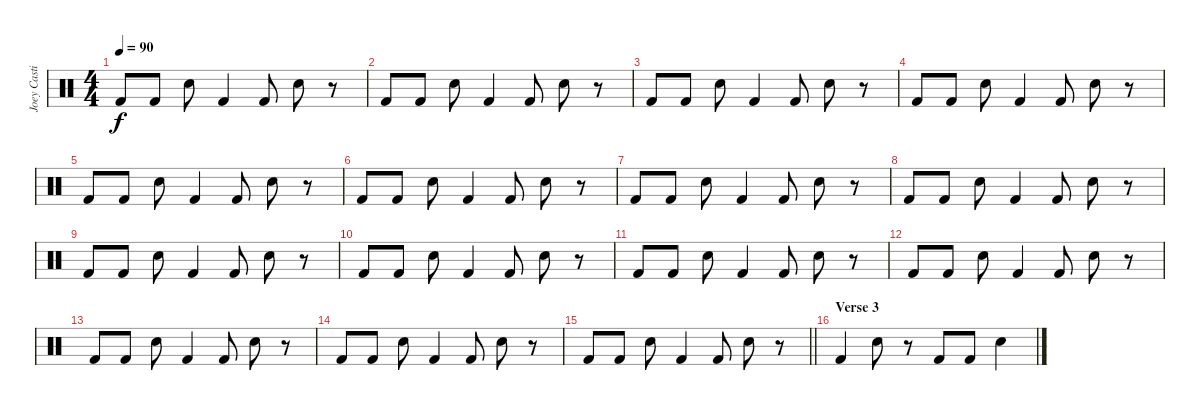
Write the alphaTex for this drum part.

\track ("Joey Castillo" "Joey Casti") {instrument percussion}
\staff {score}
\articulation defaults
\ts (4 4)
\tempo 90
\clef neutral
\ks c "Kick (hit) 2".8{dy f} "Kick (hit) 2".8 "Electric Snare (hit)".8 "Kick (hit) 2".4 "Kick (hit) 2".8 "Electric Snare (hit)".8
r.8 |
"Kick (hit) 2".8 "Kick (hit) 2".8 "Electric Snare (hit)".8 "Kick (hit) 2".4 "Kick (hit) 2".8 "Electric Snare (hit)".8 r.8 |
"Kick (hit) 2".8 "Kick (hit) 2".8 "Electric Snare (hit)".8 "Kick (hit) 2".4 "Kick (hit) 2".8 "Electric Snare (hit)".8 r.8 |
"Kick (hit) 2".8 "Kick (hit) 2".8 "Electric Snare (hit)".8 "Kick (hit) 2".4 "Kick (hit) 2".8 "Electric Snare (hit)".8 r.8 |
"Kick (hit) 2".8 "Kick (hit) 2".8 "Electric Snare (hit)".8 "Kick (hit) 2".4 "Kick (hit) 2".8 "Electric Snare (hit)".8 r.8 |
"Kick (hit) 2".8 "Kick (hit) 2".8 "Electric Snare (hit)".8 "Kick (hit) 2".4 "Kick (hit) 2".8 "Electric Snare (hit)".8 r.8 |
"Kick (hit) 2".8 "Kick (hit) 2".8 "Electric Snare (hit)".8 "Kick (hit) 2".4 "Kick (hit) 2".8 "Electric Snare (hit)".8 r.8 |
"Kick (hit) 2".8 "Kick (hit) 2".8 "Electric Snare (hit)".8 "Kick (hit) 2".4 "Kick (hit) 2".8 "Electric Snare (hit)".8 r.8 |
"Kick (hit) 2".8 "Kick (hit) 2".8 "Electric Snare (hit)".8 "Kick (hit) 2".4 "Kick (hit) 2".8 "Electric Snare (hit)".8 r.8 |
"Kick (hit) 2".8 "Kick (hit) 2".8 "Electric Snare (hit)".8 "Kick (hit) 2".4 "Kick (hit) 2".8 "Electric Snare (hit)".8 r.8 |
"Kick (hit) 2".8 "Kick (hit) 2".8 "Electric Snare (hit)".8 "Kick (hit) 2".4 "Kick (hit) 2".8 "Electric Snare (hit)".8 r.8 |
"Kick (hit) 2".8 "Kick (hit) 2".8 "Electric Snare (hit)".8 "Kick (hit) 2".4 "Kick (hit) 2".8 "Electric Snare (hit)".8 r.8 |
"Kick (hit) 2".8 "Kick (hit) 2".8 "Electric Snare (hit)".8 "Kick (hit) 2".4 "Kick (hit) 2".8 "Electric Snare (hit)".8 r.8 |
"Kick (hit) 2".8 "Kick (hit) 2".8 "Electric Snare (hit)".8 "Kick (hit) 2".4 "Kick (hit) 2".8 "Electric Snare (hit)".8 r.8 |
\barLineRight lightlight "Kick (hit) 2".8 "Kick (hit) 2".8 "Electric Snare (hit)".8 "Kick (hit) 2".4 "Kick (hit) 2".8 "Electric Snare (hit)".8
r.8 |
\section ("" "Verse 3")
"Kick (hit) 2".4 "Electric Snare (hit)".8 r.8 "Kick (hit) 2".8 "Kick (hit) 2".8 "Electric Snare (hit)".4
